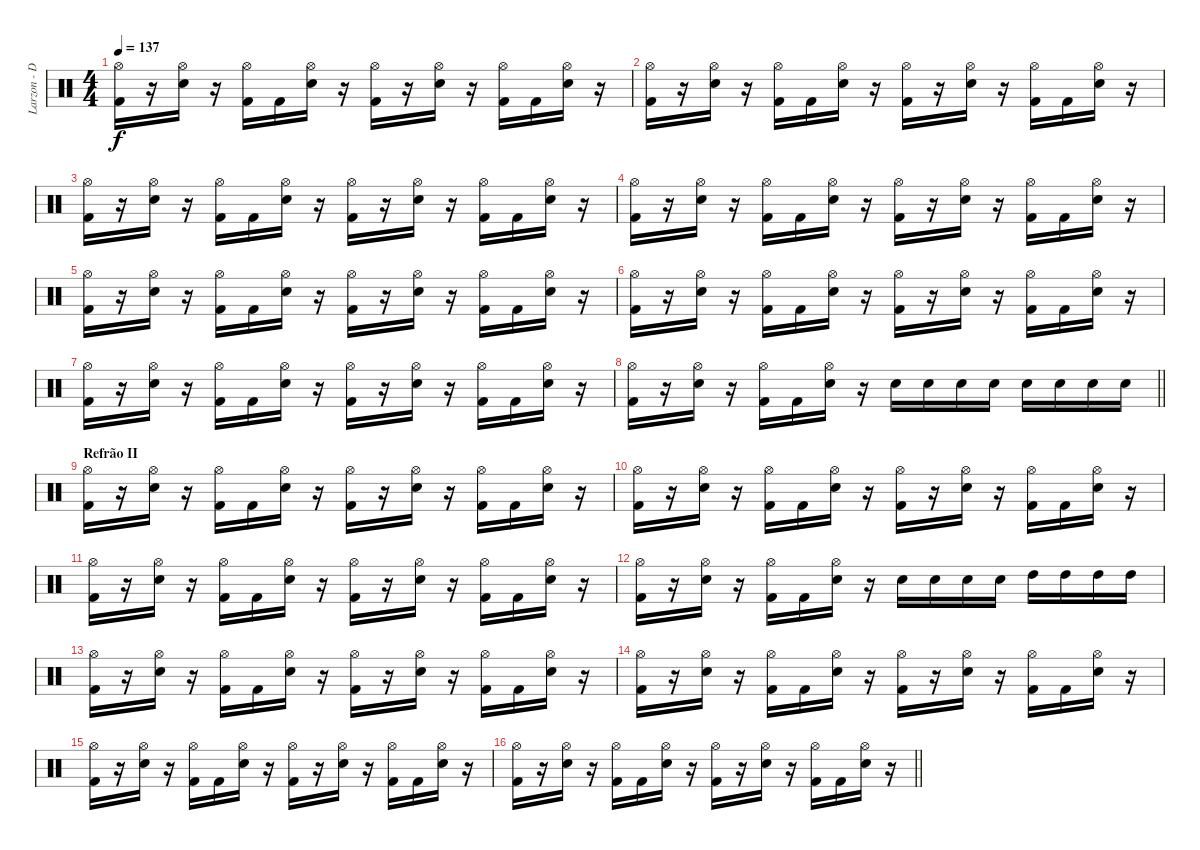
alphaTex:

\track ("Larzon - Drums" "Larzon - D") {instrument percussion}
\staff {score}
\articulation defaults
\ts (4 4)
\tempo 137
\clef neutral
\ks c
("Kick (hit) 2" "Hi-Hat (open)").16{dy f} r.16 ("Snare (hit) 2" "Hi-Hat (open)").16 r.16 ("Kick (hit) 2" "Hi-Hat (open)").16 "Kick (hit) 2".16 ("Snare (hit) 2" "Hi-Hat (open)").16 r.16 ("Kick (hit) 2" "Hi-Hat (open)").16 r.16 ("Snare (hit) 2" "Hi-Hat (open)").16 r.16 ("Kick (hit) 2" "Hi-Hat (open)").16 "Kick (hit) 2".16 ("Snare (hit) 2" "Hi-Hat (open)").16 r.16 |
("Kick (hit) 2" "Hi-Hat (open)").16 r.16 ("Snare (hit) 2" "Hi-Hat (open)").16 r.16 ("Kick (hit) 2" "Hi-Hat (open)").16 "Kick (hit) 2".16 ("Snare (hit) 2" "Hi-Hat (open)").16 r.16 ("Kick (hit) 2" "Hi-Hat (open)").16 r.16 ("Snare (hit) 2" "Hi-Hat (open)").16 r.16 ("Kick (hit) 2" "Hi-Hat (open)").16 "Kick (hit) 2".16 ("Snare (hit) 2" "Hi-Hat (open)").16 r.16 |
("Kick (hit) 2" "Hi-Hat (open)").16 r.16 ("Snare (hit) 2" "Hi-Hat (open)").16 r.16 ("Kick (hit) 2" "Hi-Hat (open)").16 "Kick (hit) 2".16 ("Snare (hit) 2" "Hi-Hat (open)").16 r.16 ("Kick (hit) 2" "Hi-Hat (open)").16 r.16 ("Snare (hit) 2" "Hi-Hat (open)").16 r.16 ("Kick (hit) 2" "Hi-Hat (open)").16 "Kick (hit) 2".16 ("Snare (hit) 2" "Hi-Hat (open)").16 r.16 |
("Kick (hit) 2" "Hi-Hat (open)").16 r.16 ("Snare (hit) 2" "Hi-Hat (open)").16 r.16 ("Kick (hit) 2" "Hi-Hat (open)").16 "Kick (hit) 2".16 ("Snare (hit) 2" "Hi-Hat (open)").16 r.16 ("Kick (hit) 2" "Hi-Hat (open)").16 r.16 ("Snare (hit) 2" "Hi-Hat (open)").16 r.16 ("Kick (hit) 2" "Hi-Hat (open)").16 "Kick (hit) 2".16 ("Snare (hit) 2" "Hi-Hat (open)").16 r.16 |
("Kick (hit) 2" "Hi-Hat (open)").16 r.16 ("Snare (hit) 2" "Hi-Hat (open)").16 r.16 ("Kick (hit) 2" "Hi-Hat (open)").16 "Kick (hit) 2".16 ("Snare (hit) 2" "Hi-Hat (open)").16 r.16 ("Kick (hit) 2" "Hi-Hat (open)").16 r.16 ("Snare (hit) 2" "Hi-Hat (open)").16 r.16 ("Kick (hit) 2" "Hi-Hat (open)").16 "Kick (hit) 2".16 ("Snare (hit) 2" "Hi-Hat (open)").16 r.16 |
("Kick (hit) 2" "Hi-Hat (open)").16 r.16 ("Snare (hit) 2" "Hi-Hat (open)").16 r.16 ("Kick (hit) 2" "Hi-Hat (open)").16 "Kick (hit) 2".16 ("Snare (hit) 2" "Hi-Hat (open)").16 r.16 ("Kick (hit) 2" "Hi-Hat (open)").16 r.16 ("Snare (hit) 2" "Hi-Hat (open)").16 r.16 ("Kick (hit) 2" "Hi-Hat (open)").16 "Kick (hit) 2".16 ("Snare (hit) 2" "Hi-Hat (open)").16 r.16 |
("Kick (hit) 2" "Hi-Hat (open)").16 r.16 ("Snare (hit) 2" "Hi-Hat (open)").16 r.16 ("Kick (hit) 2" "Hi-Hat (open)").16 "Kick (hit) 2".16 ("Snare (hit) 2" "Hi-Hat (open)").16 r.16 ("Kick (hit) 2" "Hi-Hat (open)").16 r.16 ("Snare (hit) 2" "Hi-Hat (open)").16 r.16 ("Kick (hit) 2" "Hi-Hat (open)").16 "Kick (hit) 2".16 ("Snare (hit) 2" "Hi-Hat (open)").16 r.16 |
\barLineRight lightlight
("Kick (hit) 2" "Hi-Hat (open)").16 r.16 ("Snare (hit) 2" "Hi-Hat (open)").16 r.16 ("Kick (hit) 2" "Hi-Hat (open)").16 "Kick (hit) 2".16 ("Snare (hit) 2" "Hi-Hat (open)").16 r.16 "Snare (hit) 2".16 "Snare (hit) 2".16 "Snare (hit) 2".16 "Snare (hit) 2".16 "Snare (hit) 2".16 "Snare (hit) 2".16 "Snare (hit) 2".16 "Snare (hit) 2".16 |
\section ("" "Refrão II")
("Kick (hit) 2" "Hi-Hat (open)").16 r.16 ("Snare (hit) 2" "Hi-Hat (open)").16 r.16 ("Kick (hit) 2" "Hi-Hat (open)").16 "Kick (hit) 2".16 ("Snare (hit) 2" "Hi-Hat (open)").16 r.16 ("Kick (hit) 2" "Hi-Hat (open)").16 r.16 ("Snare (hit) 2" "Hi-Hat (open)").16 r.16 ("Kick (hit) 2" "Hi-Hat (open)").16 "Kick (hit) 2".16 ("Snare (hit) 2" "Hi-Hat (open)").16 r.16 |
("Kick (hit) 2" "Hi-Hat (open)").16 r.16 ("Snare (hit) 2" "Hi-Hat (open)").16 r.16 ("Kick (hit) 2" "Hi-Hat (open)").16 "Kick (hit) 2".16 ("Snare (hit) 2" "Hi-Hat (open)").16 r.16 ("Kick (hit) 2" "Hi-Hat (open)").16 r.16 ("Snare (hit) 2" "Hi-Hat (open)").16 r.16 ("Kick (hit) 2" "Hi-Hat (open)").16 "Kick (hit) 2".16 ("Snare (hit) 2" "Hi-Hat (open)").16 r.16 |
("Kick (hit) 2" "Hi-Hat (open)").16 r.16 ("Snare (hit) 2" "Hi-Hat (open)").16 r.16 ("Kick (hit) 2" "Hi-Hat (open)").16 "Kick (hit) 2".16 ("Snare (hit) 2" "Hi-Hat (open)").16 r.16 ("Kick (hit) 2" "Hi-Hat (open)").16 r.16 ("Snare (hit) 2" "Hi-Hat (open)").16 r.16 ("Kick (hit) 2" "Hi-Hat (open)").16 "Kick (hit) 2".16 ("Snare (hit) 2" "Hi-Hat (open)").16 r.16 |
("Kick (hit) 2" "Hi-Hat (open)").16 r.16 ("Snare (hit) 2" "Hi-Hat (open)").16 r.16 ("Kick (hit) 2" "Hi-Hat (open)").16 "Kick (hit) 2".16 ("Snare (hit) 2" "Hi-Hat (open)").16 r.16 "Snare (hit) 2".16 "Snare (hit) 2".16 "Snare (hit) 2".16 "Snare (hit) 2".16 "High Tom (hit)".16 "High Tom (hit)".16 "High Tom (hit)".16 "High Tom (hit)".16 |
("Kick (hit) 2" "Hi-Hat (open)").16 r.16 ("Snare (hit) 2" "Hi-Hat (open)").16 r.16 ("Kick (hit) 2" "Hi-Hat (open)").16 "Kick (hit) 2".16 ("Snare (hit) 2" "Hi-Hat (open)").16 r.16 ("Kick (hit) 2" "Hi-Hat (open)").16 r.16 ("Snare (hit) 2" "Hi-Hat (open)").16 r.16 ("Kick (hit) 2" "Hi-Hat (open)").16 "Kick (hit) 2".16 ("Snare (hit) 2" "Hi-Hat (open)").16 r.16 |
("Kick (hit) 2" "Hi-Hat (open)").16 r.16 ("Snare (hit) 2" "Hi-Hat (open)").16 r.16 ("Kick (hit) 2" "Hi-Hat (open)").16 "Kick (hit) 2".16 ("Snare (hit) 2" "Hi-Hat (open)").16 r.16 ("Kick (hit) 2" "Hi-Hat (open)").16 r.16 ("Snare (hit) 2" "Hi-Hat (open)").16 r.16 ("Kick (hit) 2" "Hi-Hat (open)").16 "Kick (hit) 2".16 ("Snare (hit) 2" "Hi-Hat (open)").16 r.16 |
("Kick (hit) 2" "Hi-Hat (open)").16 r.16 ("Snare (hit) 2" "Hi-Hat (open)").16 r.16 ("Kick (hit) 2" "Hi-Hat (open)").16 "Kick (hit) 2".16 ("Snare (hit) 2" "Hi-Hat (open)").16 r.16 ("Kick (hit) 2" "Hi-Hat (open)").16 r.16 ("Snare (hit) 2" "Hi-Hat (open)").16 r.16 ("Kick (hit) 2" "Hi-Hat (open)").16 "Kick (hit) 2".16 ("Snare (hit) 2" "Hi-Hat (open)").16 r.16 |
\barLineRight lightlight
("Kick (hit) 2" "Hi-Hat (open)").16 r.16 ("Snare (hit) 2" "Hi-Hat (open)").16 r.16 ("Kick (hit) 2" "Hi-Hat (open)").16 "Kick (hit) 2".16 ("Snare (hit) 2" "Hi-Hat (open)").16 r.16 ("Kick (hit) 2" "Hi-Hat (open)").16 r.16 ("Snare (hit) 2" "Hi-Hat (open)").16 r.16 ("Kick (hit) 2" "Hi-Hat (open)").16 "Kick (hit) 2".16 ("Snare (hit) 2" "Hi-Hat (open)").16 r.16
